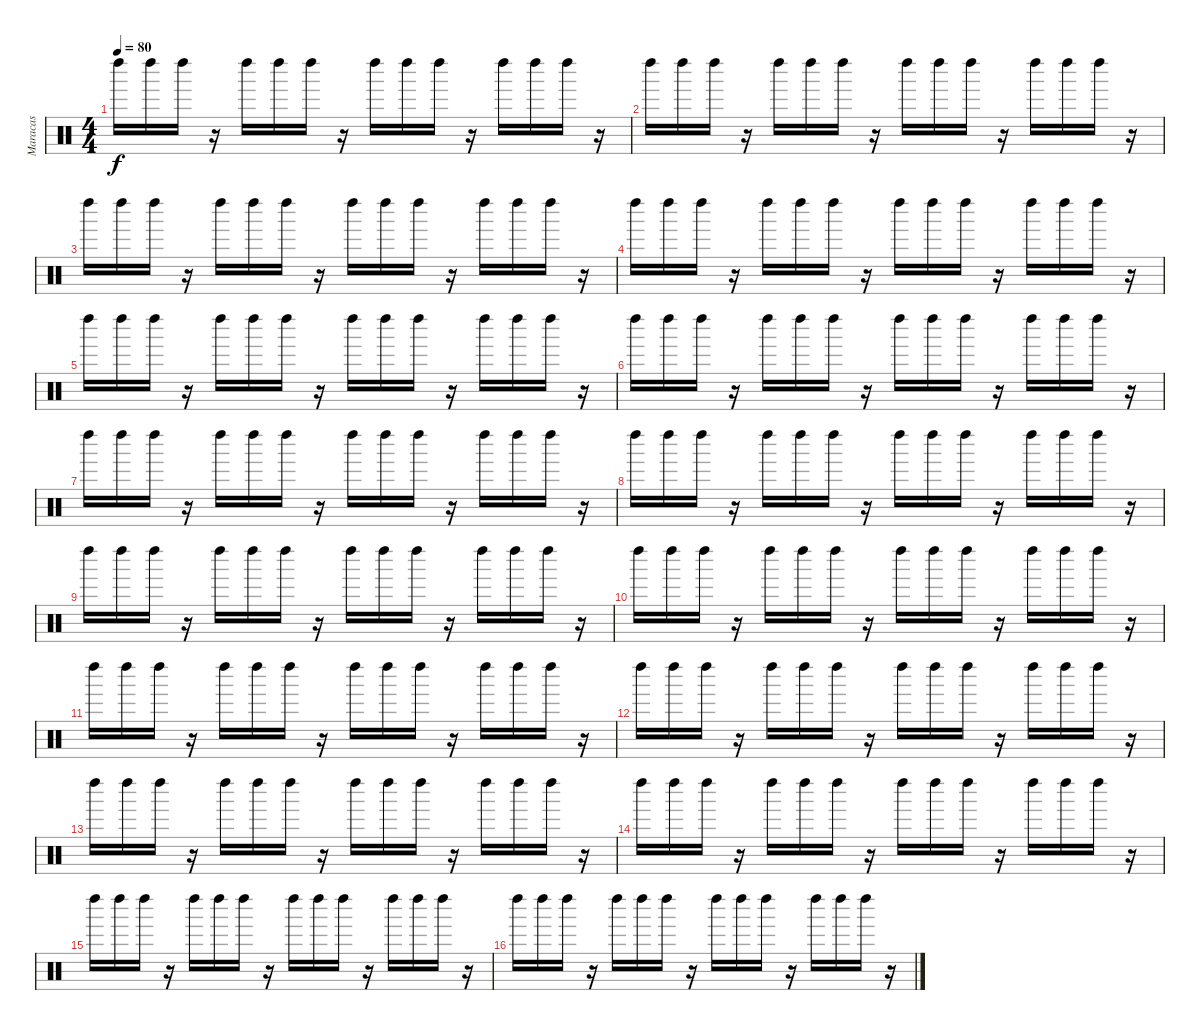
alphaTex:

\track ("Maracas" "Maracas") {instrument percussion}
\staff {score}
\articulation defaults
\ts (4 4)
\tempo 80
\clef neutral
\ks aminor "Left Maraca (hit)".16{dy f} "Left Maraca (hit)".16 "Left Maraca (hit)".16
r.16 "Left Maraca (hit)".16 "Left Maraca (hit)".16 "Left Maraca (hit)".16 r.16 "Left Maraca (hit)".16 "Left Maraca (hit)".16 "Left Maraca (hit)".16 r.16 "Left Maraca (hit)".16 "Left Maraca (hit)".16 "Left Maraca (hit)".16 r.16 |
"Left Maraca (hit)".16 "Left Maraca (hit)".16 "Left Maraca (hit)".16 r.16 "Left Maraca (hit)".16 "Left Maraca (hit)".16 "Left Maraca (hit)".16 r.16 "Left Maraca (hit)".16 "Left Maraca (hit)".16 "Left Maraca (hit)".16 r.16 "Left Maraca (hit)".16 "Left Maraca (hit)".16 "Left Maraca (hit)".16 r.16 |
"Left Maraca (hit)".16 "Left Maraca (hit)".16 "Left Maraca (hit)".16 r.16 "Left Maraca (hit)".16 "Left Maraca (hit)".16 "Left Maraca (hit)".16 r.16 "Left Maraca (hit)".16 "Left Maraca (hit)".16 "Left Maraca (hit)".16 r.16 "Left Maraca (hit)".16 "Left Maraca (hit)".16 "Left Maraca (hit)".16 r.16 |
"Left Maraca (hit)".16 "Left Maraca (hit)".16 "Left Maraca (hit)".16 r.16 "Left Maraca (hit)".16 "Left Maraca (hit)".16 "Left Maraca (hit)".16 r.16 "Left Maraca (hit)".16 "Left Maraca (hit)".16 "Left Maraca (hit)".16 r.16 "Left Maraca (hit)".16 "Left Maraca (hit)".16 "Left Maraca (hit)".16 r.16 |
"Left Maraca (hit)".16 "Left Maraca (hit)".16 "Left Maraca (hit)".16 r.16 "Left Maraca (hit)".16 "Left Maraca (hit)".16 "Left Maraca (hit)".16 r.16 "Left Maraca (hit)".16 "Left Maraca (hit)".16 "Left Maraca (hit)".16 r.16 "Left Maraca (hit)".16 "Left Maraca (hit)".16 "Left Maraca (hit)".16 r.16 |
"Left Maraca (hit)".16 "Left Maraca (hit)".16 "Left Maraca (hit)".16 r.16 "Left Maraca (hit)".16 "Left Maraca (hit)".16 "Left Maraca (hit)".16 r.16 "Left Maraca (hit)".16 "Left Maraca (hit)".16 "Left Maraca (hit)".16 r.16 "Left Maraca (hit)".16 "Left Maraca (hit)".16 "Left Maraca (hit)".16 r.16 |
"Left Maraca (hit)".16 "Left Maraca (hit)".16 "Left Maraca (hit)".16 r.16 "Left Maraca (hit)".16 "Left Maraca (hit)".16 "Left Maraca (hit)".16 r.16 "Left Maraca (hit)".16 "Left Maraca (hit)".16 "Left Maraca (hit)".16 r.16 "Left Maraca (hit)".16 "Left Maraca (hit)".16 "Left Maraca (hit)".16 r.16 |
"Left Maraca (hit)".16 "Left Maraca (hit)".16 "Left Maraca (hit)".16 r.16 "Left Maraca (hit)".16 "Left Maraca (hit)".16 "Left Maraca (hit)".16 r.16 "Left Maraca (hit)".16 "Left Maraca (hit)".16 "Left Maraca (hit)".16 r.16 "Left Maraca (hit)".16 "Left Maraca (hit)".16 "Left Maraca (hit)".16 r.16 |
"Left Maraca (hit)".16 "Left Maraca (hit)".16 "Left Maraca (hit)".16 r.16 "Left Maraca (hit)".16 "Left Maraca (hit)".16 "Left Maraca (hit)".16 r.16 "Left Maraca (hit)".16 "Left Maraca (hit)".16 "Left Maraca (hit)".16 r.16 "Left Maraca (hit)".16 "Left Maraca (hit)".16 "Left Maraca (hit)".16 r.16 |
"Left Maraca (hit)".16 "Left Maraca (hit)".16 "Left Maraca (hit)".16 r.16 "Left Maraca (hit)".16 "Left Maraca (hit)".16 "Left Maraca (hit)".16 r.16 "Left Maraca (hit)".16 "Left Maraca (hit)".16 "Left Maraca (hit)".16 r.16 "Left Maraca (hit)".16 "Left Maraca (hit)".16 "Left Maraca (hit)".16 r.16 |
"Left Maraca (hit)".16 "Left Maraca (hit)".16 "Left Maraca (hit)".16 r.16 "Left Maraca (hit)".16 "Left Maraca (hit)".16 "Left Maraca (hit)".16 r.16 "Left Maraca (hit)".16 "Left Maraca (hit)".16 "Left Maraca (hit)".16 r.16 "Left Maraca (hit)".16 "Left Maraca (hit)".16 "Left Maraca (hit)".16 r.16 |
"Left Maraca (hit)".16 "Left Maraca (hit)".16 "Left Maraca (hit)".16 r.16 "Left Maraca (hit)".16 "Left Maraca (hit)".16 "Left Maraca (hit)".16 r.16 "Left Maraca (hit)".16 "Left Maraca (hit)".16 "Left Maraca (hit)".16 r.16 "Left Maraca (hit)".16 "Left Maraca (hit)".16 "Left Maraca (hit)".16 r.16 |
"Left Maraca (hit)".16 "Left Maraca (hit)".16 "Left Maraca (hit)".16 r.16 "Left Maraca (hit)".16 "Left Maraca (hit)".16 "Left Maraca (hit)".16 r.16 "Left Maraca (hit)".16 "Left Maraca (hit)".16 "Left Maraca (hit)".16 r.16 "Left Maraca (hit)".16 "Left Maraca (hit)".16 "Left Maraca (hit)".16 r.16 |
"Left Maraca (hit)".16 "Left Maraca (hit)".16 "Left Maraca (hit)".16 r.16 "Left Maraca (hit)".16 "Left Maraca (hit)".16 "Left Maraca (hit)".16 r.16 "Left Maraca (hit)".16 "Left Maraca (hit)".16 "Left Maraca (hit)".16 r.16 "Left Maraca (hit)".16 "Left Maraca (hit)".16 "Left Maraca (hit)".16 r.16 |
"Left Maraca (hit)".16 "Left Maraca (hit)".16 "Left Maraca (hit)".16 r.16 "Left Maraca (hit)".16 "Left Maraca (hit)".16 "Left Maraca (hit)".16 r.16 "Left Maraca (hit)".16 "Left Maraca (hit)".16 "Left Maraca (hit)".16 r.16 "Left Maraca (hit)".16 "Left Maraca (hit)".16 "Left Maraca (hit)".16 r.16 |
"Left Maraca (hit)".16 "Left Maraca (hit)".16 "Left Maraca (hit)".16 r.16 "Left Maraca (hit)".16 "Left Maraca (hit)".16 "Left Maraca (hit)".16 r.16 "Left Maraca (hit)".16 "Left Maraca (hit)".16 "Left Maraca (hit)".16 r.16 "Left Maraca (hit)".16 "Left Maraca (hit)".16 "Left Maraca (hit)".16 r.16
